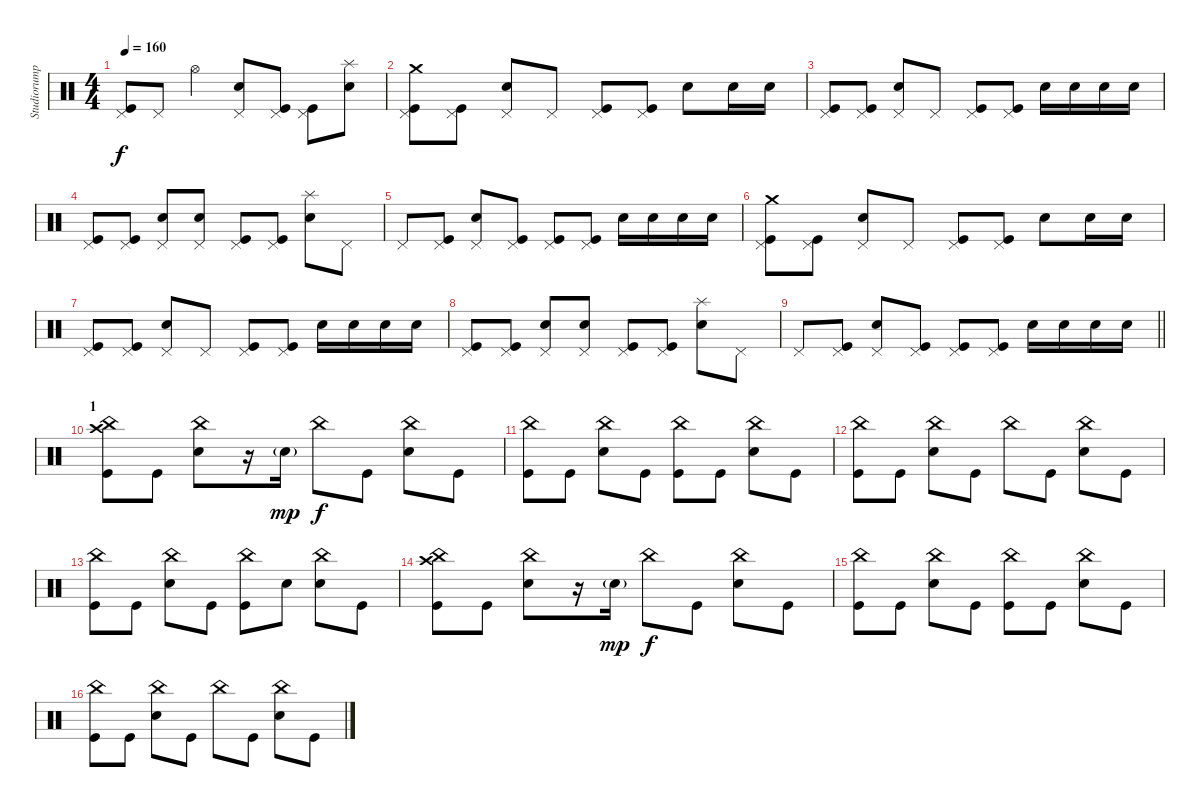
\track ("Studiorumpali" "Studiorump") {instrument percussion}
\staff {score}
\articulation defaults
\ts (4 4)
\tempo 160
\clef neutral
\ks c
("Pedal Hi-Hat (hit)" "Kick (hit)").8{dy f} "Pedal Hi-Hat (hit)".8 "Hi-Hat (open)".4 ("Pedal Hi-Hat (hit)" "Snare (hit) 2").8 ("Pedal Hi-Hat (hit)" "Kick (hit)").8 ("Pedal Hi-Hat (hit)" "Kick (hit)").8 ("Splash (hit)" "Snare (hit) 2").8 |
("Crash medium (hit)" "Pedal Hi-Hat (hit)" "Kick (hit)").8 ("Pedal Hi-Hat (hit)" "Kick (hit)").8 ("Pedal Hi-Hat (hit)" "Snare (hit) 2").8 "Pedal Hi-Hat (hit)".8 ("Pedal Hi-Hat (hit)" "Kick (hit)").8 ("Pedal Hi-Hat (hit)" "Kick (hit)").8 "Snare (hit) 2".8 "Snare (hit) 2".16 "Snare (hit) 2".16 |
("Pedal Hi-Hat (hit)" "Kick (hit)").8 ("Pedal Hi-Hat (hit)" "Kick (hit)").8 ("Pedal Hi-Hat (hit)" "Snare (hit) 2").8 "Pedal Hi-Hat (hit)".8 ("Pedal Hi-Hat (hit)" "Kick (hit)").8 ("Pedal Hi-Hat (hit)" "Kick (hit)").8 "Snare (hit) 2".16 "Snare (hit) 2".16 "Snare (hit) 2".16 "Snare (hit) 2".16 |
("Pedal Hi-Hat (hit)" "Kick (hit)").8 ("Pedal Hi-Hat (hit)" "Kick (hit)").8 ("Pedal Hi-Hat (hit)" "Snare (hit) 2").8 ("Pedal Hi-Hat (hit)" "Snare (hit) 2").8 ("Pedal Hi-Hat (hit)" "Kick (hit)").8 ("Pedal Hi-Hat (hit)" "Kick (hit)").8 ("Splash (hit)" "Snare (hit) 2").8 "Pedal Hi-Hat (hit)".8 |
"Pedal Hi-Hat (hit)".8 ("Pedal Hi-Hat (hit)" "Kick (hit)").8 ("Pedal Hi-Hat (hit)" "Snare (hit) 2").8 ("Pedal Hi-Hat (hit)" "Kick (hit)").8 ("Pedal Hi-Hat (hit)" "Kick (hit)").8 ("Pedal Hi-Hat (hit)" "Kick (hit)").8 "Snare (hit) 2".16 "Snare (hit) 2".16 "Snare (hit) 2".16 "Snare (hit) 2".16 |
("Crash medium (hit)" "Pedal Hi-Hat (hit)" "Kick (hit)").8 ("Pedal Hi-Hat (hit)" "Kick (hit)").8 ("Pedal Hi-Hat (hit)" "Snare (hit) 2").8 "Pedal Hi-Hat (hit)".8 ("Pedal Hi-Hat (hit)" "Kick (hit)").8 ("Pedal Hi-Hat (hit)" "Kick (hit)").8 "Snare (hit) 2".8 "Snare (hit) 2".16 "Snare (hit) 2".16 |
("Pedal Hi-Hat (hit)" "Kick (hit)").8 ("Pedal Hi-Hat (hit)" "Kick (hit)").8 ("Pedal Hi-Hat (hit)" "Snare (hit) 2").8 "Pedal Hi-Hat (hit)".8 ("Pedal Hi-Hat (hit)" "Kick (hit)").8 ("Pedal Hi-Hat (hit)" "Kick (hit)").8 "Snare (hit) 2".16 "Snare (hit) 2".16 "Snare (hit) 2".16 "Snare (hit) 2".16 |
("Pedal Hi-Hat (hit)" "Kick (hit)").8 ("Pedal Hi-Hat (hit)" "Kick (hit)").8 ("Pedal Hi-Hat (hit)" "Snare (hit) 2").8 ("Pedal Hi-Hat (hit)" "Snare (hit) 2").8 ("Pedal Hi-Hat (hit)" "Kick (hit)").8 ("Pedal Hi-Hat (hit)" "Kick (hit)").8 ("Splash (hit)" "Snare (hit) 2").8 "Pedal Hi-Hat (hit)".8 |
\barLineRight lightlight "Pedal Hi-Hat (hit)".8
("Pedal Hi-Hat (hit)" "Kick (hit)").8 ("Pedal Hi-Hat (hit)" "Snare (hit) 2").8 ("Pedal Hi-Hat (hit)" "Kick (hit)").8 ("Pedal Hi-Hat (hit)" "Kick (hit)").8 ("Pedal Hi-Hat (hit)" "Kick (hit)").8 "Snare (hit) 2".16 "Snare (hit) 2".16 "Snare (hit) 2".16 "Snare (hit) 2".16 |
\section ("" "1")
("Crash high (hit)" "China (hit)" "Kick (hit)").8 "Kick (hit)".8 ("China (hit)" "Snare (hit) 2").8 r.16 "Snare (hit) 2"{g}.16{dy mp} "China (hit)".8{dy f} "Kick (hit)".8 ("China (hit)" "Snare (hit) 2").8 "Kick (hit)".8 |
("China (hit)" "Kick (hit)").8 "Kick (hit)".8 ("China (hit)" "Snare (hit) 2").8 "Kick (hit)".8 ("China (hit)" "Kick (hit)").8 "Kick (hit)".8 ("China (hit)" "Snare (hit) 2").8 "Kick (hit)".8 |
("China (hit)" "Kick (hit)").8 "Kick (hit)".8 ("China (hit)" "Snare (hit) 2").8 "Kick (hit)".8 "China (hit)".8 "Kick (hit)".8 ("China (hit)" "Snare (hit) 2").8 "Kick (hit)".8 |
("China (hit)" "Kick (hit)").8 "Kick (hit)".8 ("China (hit)" "Snare (hit) 2").8 "Kick (hit)".8 ("China (hit)" "Kick (hit)").8 "Snare (hit) 2".8 ("China (hit)" "Snare (hit) 2").8 "Kick (hit)".8 |
("Crash high (hit)" "China (hit)" "Kick (hit)").8 "Kick (hit)".8 ("China (hit)" "Snare (hit) 2").8 r.16 "Snare (hit) 2"{g}.16{dy mp} "China (hit)".8{dy f} "Kick (hit)".8 ("China (hit)" "Snare (hit) 2").8 "Kick (hit)".8 |
("China (hit)" "Kick (hit)").8 "Kick (hit)".8 ("China (hit)" "Snare (hit) 2").8 "Kick (hit)".8 ("China (hit)" "Kick (hit)").8 "Kick (hit)".8 ("China (hit)" "Snare (hit) 2").8 "Kick (hit)".8 |
("China (hit)" "Kick (hit)").8 "Kick (hit)".8 ("China (hit)" "Snare (hit) 2").8 "Kick (hit)".8 "China (hit)".8 "Kick (hit)".8 ("China (hit)" "Snare (hit) 2").8 "Kick (hit)".8
